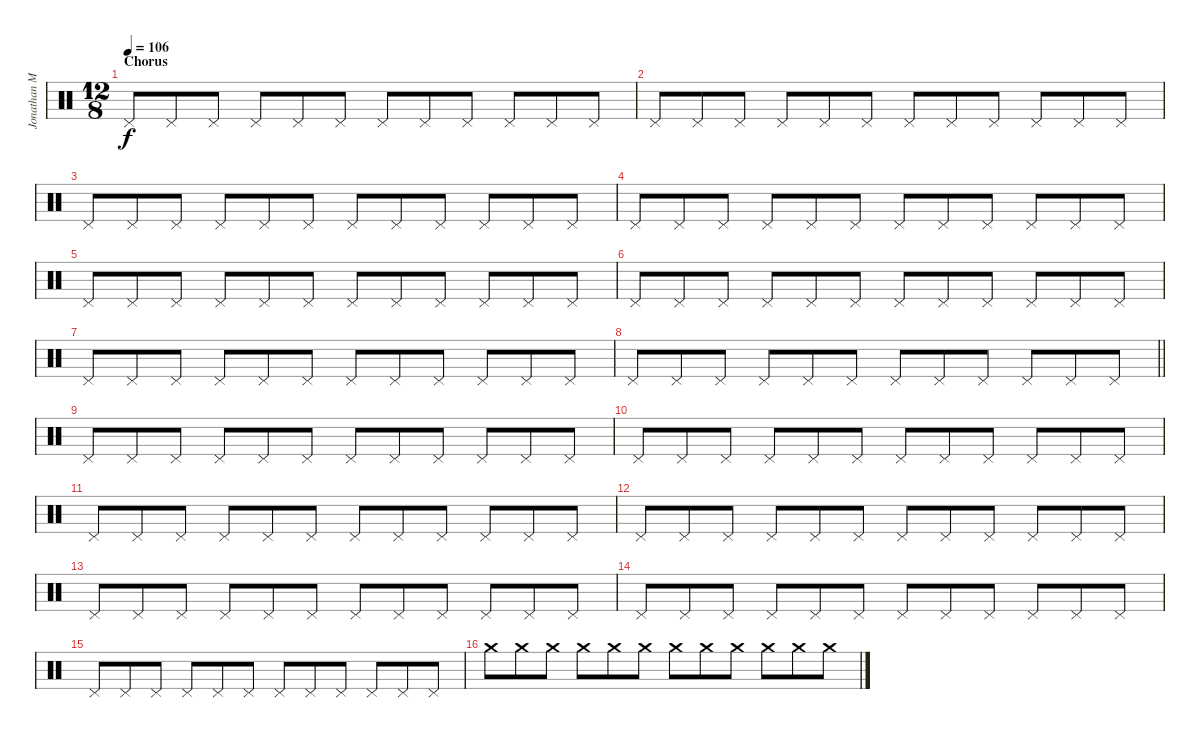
\track ("Jonathan Mover (Studio Drummer)" "Jonathan M") {instrument percussion}
\staff {score}
\articulation defaults
\ts (12 8)
\section ("" "Chorus")
\tempo 106
\clef neutral
\ks c "Pedal Hi-Hat (hit)".8{dy f} "Pedal Hi-Hat (hit)".8 "Pedal Hi-Hat (hit)".8 "Pedal Hi-Hat (hit)".8 "Pedal Hi-Hat (hit)".8 "Pedal Hi-Hat (hit)".8 "Pedal Hi-Hat (hit)".8 "Pedal Hi-Hat (hit)".8 "Pedal Hi-Hat (hit)".8 "Pedal Hi-Hat (hit)".8 "Pedal Hi-Hat (hit)".8 "Pedal Hi-Hat (hit)".8
|
"Pedal Hi-Hat (hit)".8 "Pedal Hi-Hat (hit)".8 "Pedal Hi-Hat (hit)".8 "Pedal Hi-Hat (hit)".8 "Pedal Hi-Hat (hit)".8 "Pedal Hi-Hat (hit)".8 "Pedal Hi-Hat (hit)".8 "Pedal Hi-Hat (hit)".8 "Pedal Hi-Hat (hit)".8 "Pedal Hi-Hat (hit)".8 "Pedal Hi-Hat (hit)".8 "Pedal Hi-Hat (hit)".8 |
"Pedal Hi-Hat (hit)".8 "Pedal Hi-Hat (hit)".8 "Pedal Hi-Hat (hit)".8 "Pedal Hi-Hat (hit)".8 "Pedal Hi-Hat (hit)".8 "Pedal Hi-Hat (hit)".8 "Pedal Hi-Hat (hit)".8 "Pedal Hi-Hat (hit)".8 "Pedal Hi-Hat (hit)".8 "Pedal Hi-Hat (hit)".8 "Pedal Hi-Hat (hit)".8 "Pedal Hi-Hat (hit)".8 |
"Pedal Hi-Hat (hit)".8 "Pedal Hi-Hat (hit)".8 "Pedal Hi-Hat (hit)".8 "Pedal Hi-Hat (hit)".8 "Pedal Hi-Hat (hit)".8 "Pedal Hi-Hat (hit)".8 "Pedal Hi-Hat (hit)".8 "Pedal Hi-Hat (hit)".8 "Pedal Hi-Hat (hit)".8 "Pedal Hi-Hat (hit)".8 "Pedal Hi-Hat (hit)".8 "Pedal Hi-Hat (hit)".8 |
"Pedal Hi-Hat (hit)".8 "Pedal Hi-Hat (hit)".8 "Pedal Hi-Hat (hit)".8 "Pedal Hi-Hat (hit)".8 "Pedal Hi-Hat (hit)".8 "Pedal Hi-Hat (hit)".8 "Pedal Hi-Hat (hit)".8 "Pedal Hi-Hat (hit)".8 "Pedal Hi-Hat (hit)".8 "Pedal Hi-Hat (hit)".8 "Pedal Hi-Hat (hit)".8 "Pedal Hi-Hat (hit)".8 |
"Pedal Hi-Hat (hit)".8 "Pedal Hi-Hat (hit)".8 "Pedal Hi-Hat (hit)".8 "Pedal Hi-Hat (hit)".8 "Pedal Hi-Hat (hit)".8 "Pedal Hi-Hat (hit)".8 "Pedal Hi-Hat (hit)".8 "Pedal Hi-Hat (hit)".8 "Pedal Hi-Hat (hit)".8 "Pedal Hi-Hat (hit)".8 "Pedal Hi-Hat (hit)".8 "Pedal Hi-Hat (hit)".8 |
"Pedal Hi-Hat (hit)".8 "Pedal Hi-Hat (hit)".8 "Pedal Hi-Hat (hit)".8 "Pedal Hi-Hat (hit)".8 "Pedal Hi-Hat (hit)".8 "Pedal Hi-Hat (hit)".8 "Pedal Hi-Hat (hit)".8 "Pedal Hi-Hat (hit)".8 "Pedal Hi-Hat (hit)".8 "Pedal Hi-Hat (hit)".8 "Pedal Hi-Hat (hit)".8 "Pedal Hi-Hat (hit)".8 |
\barLineRight lightlight "Pedal Hi-Hat (hit)".8 "Pedal Hi-Hat (hit)".8 "Pedal Hi-Hat (hit)".8 "Pedal Hi-Hat (hit)".8 "Pedal Hi-Hat (hit)".8 "Pedal Hi-Hat (hit)".8 "Pedal Hi-Hat (hit)".8 "Pedal Hi-Hat (hit)".8 "Pedal Hi-Hat (hit)".8 "Pedal Hi-Hat (hit)".8 "Pedal Hi-Hat (hit)".8 "Pedal Hi-Hat (hit)".8
|
"Pedal Hi-Hat (hit)".8 "Pedal Hi-Hat (hit)".8 "Pedal Hi-Hat (hit)".8 "Pedal Hi-Hat (hit)".8 "Pedal Hi-Hat (hit)".8 "Pedal Hi-Hat (hit)".8 "Pedal Hi-Hat (hit)".8 "Pedal Hi-Hat (hit)".8 "Pedal Hi-Hat (hit)".8 "Pedal Hi-Hat (hit)".8 "Pedal Hi-Hat (hit)".8 "Pedal Hi-Hat (hit)".8 |
"Pedal Hi-Hat (hit)".8 "Pedal Hi-Hat (hit)".8 "Pedal Hi-Hat (hit)".8 "Pedal Hi-Hat (hit)".8 "Pedal Hi-Hat (hit)".8 "Pedal Hi-Hat (hit)".8 "Pedal Hi-Hat (hit)".8 "Pedal Hi-Hat (hit)".8 "Pedal Hi-Hat (hit)".8 "Pedal Hi-Hat (hit)".8 "Pedal Hi-Hat (hit)".8 "Pedal Hi-Hat (hit)".8 |
"Pedal Hi-Hat (hit)".8 "Pedal Hi-Hat (hit)".8 "Pedal Hi-Hat (hit)".8 "Pedal Hi-Hat (hit)".8 "Pedal Hi-Hat (hit)".8 "Pedal Hi-Hat (hit)".8 "Pedal Hi-Hat (hit)".8 "Pedal Hi-Hat (hit)".8 "Pedal Hi-Hat (hit)".8 "Pedal Hi-Hat (hit)".8 "Pedal Hi-Hat (hit)".8 "Pedal Hi-Hat (hit)".8 |
"Pedal Hi-Hat (hit)".8 "Pedal Hi-Hat (hit)".8 "Pedal Hi-Hat (hit)".8 "Pedal Hi-Hat (hit)".8 "Pedal Hi-Hat (hit)".8 "Pedal Hi-Hat (hit)".8 "Pedal Hi-Hat (hit)".8 "Pedal Hi-Hat (hit)".8 "Pedal Hi-Hat (hit)".8 "Pedal Hi-Hat (hit)".8 "Pedal Hi-Hat (hit)".8 "Pedal Hi-Hat (hit)".8 |
"Pedal Hi-Hat (hit)".8 "Pedal Hi-Hat (hit)".8 "Pedal Hi-Hat (hit)".8 "Pedal Hi-Hat (hit)".8 "Pedal Hi-Hat (hit)".8 "Pedal Hi-Hat (hit)".8 "Pedal Hi-Hat (hit)".8 "Pedal Hi-Hat (hit)".8 "Pedal Hi-Hat (hit)".8 "Pedal Hi-Hat (hit)".8 "Pedal Hi-Hat (hit)".8 "Pedal Hi-Hat (hit)".8 |
"Pedal Hi-Hat (hit)".8 "Pedal Hi-Hat (hit)".8 "Pedal Hi-Hat (hit)".8 "Pedal Hi-Hat (hit)".8 "Pedal Hi-Hat (hit)".8 "Pedal Hi-Hat (hit)".8 "Pedal Hi-Hat (hit)".8 "Pedal Hi-Hat (hit)".8 "Pedal Hi-Hat (hit)".8 "Pedal Hi-Hat (hit)".8 "Pedal Hi-Hat (hit)".8 "Pedal Hi-Hat (hit)".8 |
"Pedal Hi-Hat (hit)".8 "Pedal Hi-Hat (hit)".8 "Pedal Hi-Hat (hit)".8 "Pedal Hi-Hat (hit)".8 "Pedal Hi-Hat (hit)".8 "Pedal Hi-Hat (hit)".8 "Pedal Hi-Hat (hit)".8 "Pedal Hi-Hat (hit)".8 "Pedal Hi-Hat (hit)".8 "Pedal Hi-Hat (hit)".8 "Pedal Hi-Hat (hit)".8 "Pedal Hi-Hat (hit)".8 |
"Crash medium (hit)".8 "Crash medium (hit)".8 "Crash medium (hit)".8 "Crash medium (hit)".8 "Crash medium (hit)".8 "Crash medium (hit)".8 "Crash medium (hit)".8 "Crash medium (hit)".8 "Crash medium (hit)".8 "Crash medium (hit)".8 "Crash medium (hit)".8 "Crash medium (hit)".8
